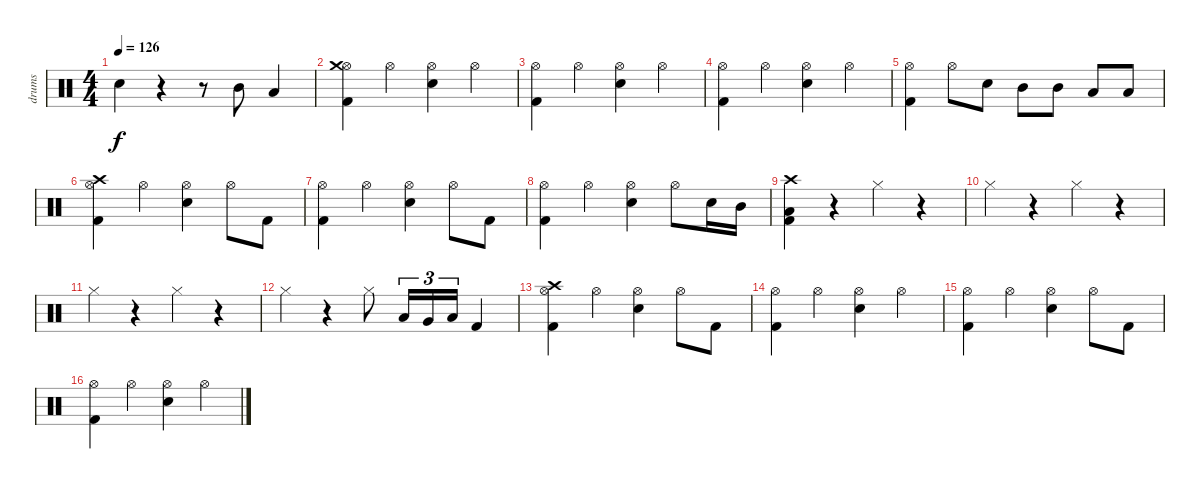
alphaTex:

\track ("drums" "drums") {instrument percussion}
\staff {score}
\articulation defaults
\ts (4 4)
\tempo 126
\clef neutral
\ks c "Electric Snare (hit)".4{dy f}
r.4 r.8 "Mid Tom (hit)".8 "Low Tom (hit)".4 |
("Hi-Hat (open)" "Crash medium (hit)" "Kick (hit) 2").4 "Hi-Hat (open)".4 ("Electric Snare (hit)" "Hi-Hat (open)").4 "Hi-Hat (open)".4 |
("Kick (hit) 2" "Hi-Hat (open)").4 "Hi-Hat (open)".4 ("Electric Snare (hit)" "Hi-Hat (open)").4 "Hi-Hat (open)".4 |
("Kick (hit) 2" "Hi-Hat (open)").4 "Hi-Hat (open)".4 ("Electric Snare (hit)" "Hi-Hat (open)").4 "Hi-Hat (open)".4 |
("Kick (hit) 2" "Hi-Hat (open)").4 "Hi-Hat (open)".8 "Electric Snare (hit)".8 "Mid Tom (hit)".8 "Mid Tom (hit)".8 "Low Tom (hit)".8 "Low Tom (hit)".8 |
("Kick (hit) 2" "Hi-Hat (open)" "Crash high (hit)").4 "Hi-Hat (open)".4 ("Electric Snare (hit)" "Hi-Hat (open)").4 "Hi-Hat (open)".8 "Kick (hit) 2".8 |
("Kick (hit) 2" "Hi-Hat (open)").4 "Hi-Hat (open)".4 ("Electric Snare (hit)" "Hi-Hat (open)").4 "Hi-Hat (open)".8 "Kick (hit) 2".8 |
("Kick (hit) 2" "Hi-Hat (open)").4 "Hi-Hat (open)".4 ("Electric Snare (hit)" "Hi-Hat (open)").4 "Hi-Hat (open)".8 "Electric Snare (hit)".16 "Mid Tom (hit)".16 |
("Low Tom (hit)" "Kick (hit) 2" "Crash high (hit)").4 r.4 "Hi-Hat (closed)".4 r.4 |
"Hi-Hat (closed)".4 r.4 "Hi-Hat (closed)".4 r.4 |
"Hi-Hat (closed)".4 r.4 "Hi-Hat (closed)".4 r.4 |
"Hi-Hat (closed)".4 r.4 "Hi-Hat (closed)".8 "Low Tom (hit)".16{tu (3 2)} "Very Low Tom (hit)".16{tu (3 2)} "Low Floor Tom (hit)".16{tu (3 2)} "Kick (hit) 2".4 |
("Kick (hit) 2" "Hi-Hat (open)" "Crash high (hit)").4 "Hi-Hat (open)".4 ("Electric Snare (hit)" "Hi-Hat (open)").4 "Hi-Hat (open)".8 "Kick (hit) 2".8 |
("Kick (hit) 2" "Hi-Hat (open)").4 "Hi-Hat (open)".4 ("Electric Snare (hit)" "Hi-Hat (open)").4 "Hi-Hat (open)".4 |
("Kick (hit) 2" "Hi-Hat (open)").4 "Hi-Hat (open)".4 ("Electric Snare (hit)" "Hi-Hat (open)").4 "Hi-Hat (open)".8 "Kick (hit) 2".8 |
("Kick (hit) 2" "Hi-Hat (open)").4 "Hi-Hat (open)".4 ("Electric Snare (hit)" "Hi-Hat (open)").4 "Hi-Hat (open)".4
